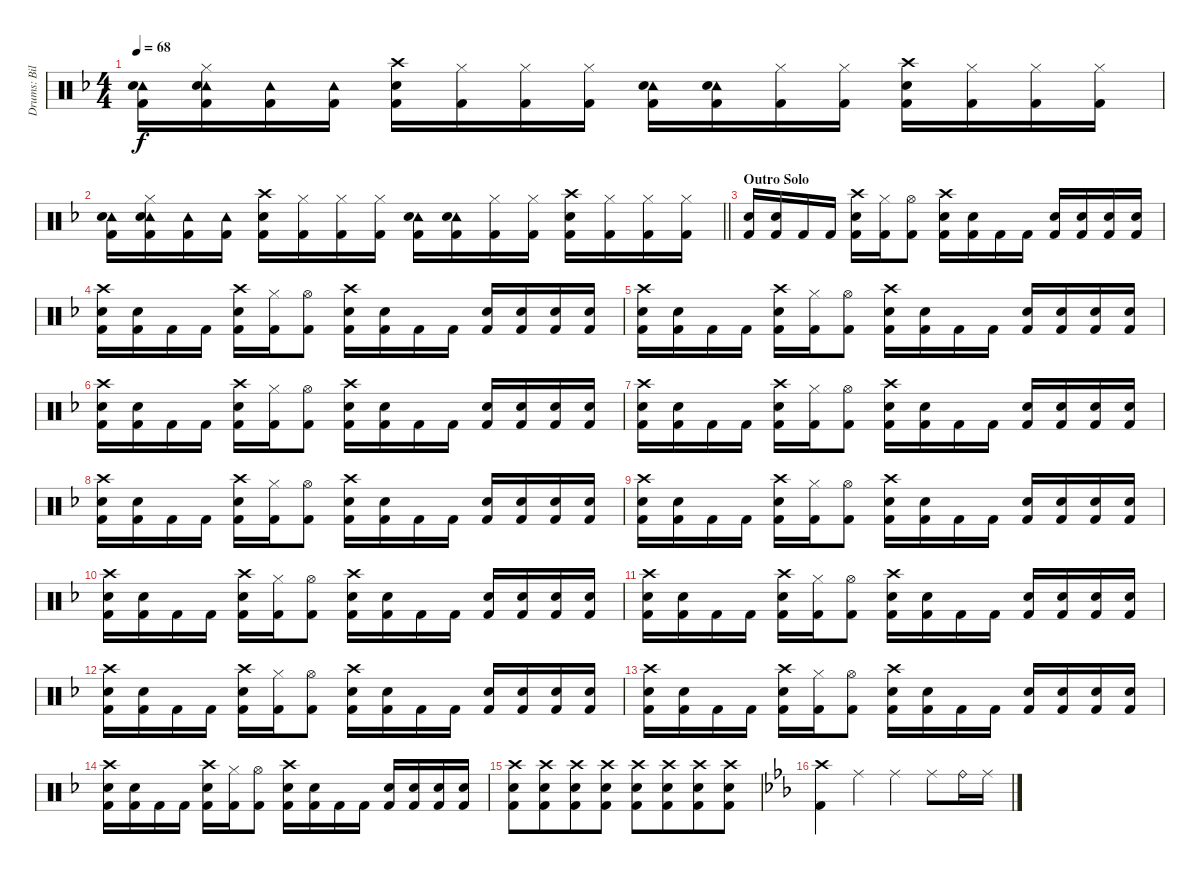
\track ("Drums: Bill" "Drums: Bil") {instrument percussion}
\staff {score}
\articulation defaults
\ts (4 4)
\tempo 68
\clef neutral
\ks dminor
("Tambourine (hit)" "Electric Snare (hit)" "Kick (hit) 2").16{dy f} ("Tambourine (hit)" "Hi-Hat (closed)" "Electric Snare (hit)" "Kick (hit) 2").16 ("Tambourine (hit)" "Kick (hit) 2").16 ("Tambourine (hit)" "Kick (hit) 2").16 ("Crash high (hit)" "Electric Snare (hit)" "Kick (hit) 2").16 ("Hi-Hat (closed)" "Kick (hit) 2").16 ("Hi-Hat (closed)" "Kick (hit) 2").16 ("Hi-Hat (closed)" "Kick (hit) 2").16 ("Tambourine (hit)" "Electric Snare (hit)" "Kick (hit) 2").16 ("Tambourine (hit)" "Electric Snare (hit)" "Kick (hit) 2").16 ("Hi-Hat (closed)" "Kick (hit) 2").16 ("Hi-Hat (closed)" "Kick (hit) 2").16 ("Crash high (hit)" "Electric Snare (hit)" "Kick (hit) 2").16 ("Hi-Hat (closed)" "Kick (hit) 2").16 ("Hi-Hat (closed)" "Kick (hit) 2").16 ("Hi-Hat (closed)" "Kick (hit) 2").16 |
\barLineRight lightlight
("Tambourine (hit)" "Electric Snare (hit)" "Kick (hit) 2").16 ("Tambourine (hit)" "Hi-Hat (closed)" "Electric Snare (hit)" "Kick (hit) 2").16 ("Tambourine (hit)" "Kick (hit) 2").16 ("Tambourine (hit)" "Kick (hit) 2").16 ("Crash high (hit)" "Electric Snare (hit)" "Kick (hit) 2").16 ("Hi-Hat (closed)" "Kick (hit) 2").16 ("Hi-Hat (closed)" "Kick (hit) 2").16 ("Hi-Hat (closed)" "Kick (hit) 2").16 ("Tambourine (hit)" "Electric Snare (hit)" "Kick (hit) 2").16 ("Tambourine (hit)" "Electric Snare (hit)" "Kick (hit) 2").16 ("Hi-Hat (closed)" "Kick (hit) 2").16 ("Hi-Hat (closed)" "Kick (hit) 2").16 ("Crash high (hit)" "Electric Snare (hit)" "Kick (hit) 2").16 ("Hi-Hat (closed)" "Kick (hit) 2").16 ("Hi-Hat (closed)" "Kick (hit) 2").16 ("Hi-Hat (closed)" "Kick (hit) 2").16 |
\section ("" "Outro Solo")
("Electric Snare (hit)" "Kick (hit) 2").16 ("Electric Snare (hit)" "Kick (hit) 2").16 "Kick (hit) 2".16 "Kick (hit) 2".16 ("Crash high (hit)" "Snare (hit) 2" "Kick (hit) 2").16 ("Hi-Hat (closed)" "Kick (hit) 2").16 ("Hi-Hat (open)" "Kick (hit) 2").8 ("Crash high (hit)" "Electric Snare (hit)" "Kick (hit) 2").16 ("Electric Snare (hit)" "Kick (hit) 2").16 "Kick (hit) 2".16 "Kick (hit) 2".16 ("Electric Snare (hit)" "Kick (hit) 2").16 ("Electric Snare (hit)" "Kick (hit) 2").16 ("Electric Snare (hit)" "Kick (hit) 2").16 ("Electric Snare (hit)" "Kick (hit) 2").16 |
("Crash high (hit)" "Electric Snare (hit)" "Kick (hit) 2").16 ("Electric Snare (hit)" "Kick (hit) 2").16 "Kick (hit) 2".16 "Kick (hit) 2".16 ("Crash high (hit)" "Snare (hit) 2" "Kick (hit) 2").16 ("Hi-Hat (closed)" "Kick (hit) 2").16 ("Hi-Hat (open)" "Kick (hit) 2").8 ("Crash high (hit)" "Electric Snare (hit)" "Kick (hit) 2").16 ("Electric Snare (hit)" "Kick (hit) 2").16 "Kick (hit) 2".16 "Kick (hit) 2".16 ("Electric Snare (hit)" "Kick (hit) 2").16 ("Electric Snare (hit)" "Kick (hit) 2").16 ("Electric Snare (hit)" "Kick (hit) 2").16 ("Electric Snare (hit)" "Kick (hit) 2").16 |
("Crash high (hit)" "Electric Snare (hit)" "Kick (hit) 2").16 ("Electric Snare (hit)" "Kick (hit) 2").16 "Kick (hit) 2".16 "Kick (hit) 2".16 ("Crash high (hit)" "Snare (hit) 2" "Kick (hit) 2").16 ("Hi-Hat (closed)" "Kick (hit) 2").16 ("Hi-Hat (open)" "Kick (hit) 2").8 ("Crash high (hit)" "Electric Snare (hit)" "Kick (hit) 2").16 ("Electric Snare (hit)" "Kick (hit) 2").16 "Kick (hit) 2".16 "Kick (hit) 2".16 ("Electric Snare (hit)" "Kick (hit) 2").16 ("Electric Snare (hit)" "Kick (hit) 2").16 ("Electric Snare (hit)" "Kick (hit) 2").16 ("Electric Snare (hit)" "Kick (hit) 2").16 |
("Crash high (hit)" "Electric Snare (hit)" "Kick (hit) 2").16 ("Electric Snare (hit)" "Kick (hit) 2").16 "Kick (hit) 2".16 "Kick (hit) 2".16 ("Crash high (hit)" "Snare (hit) 2" "Kick (hit) 2").16 ("Hi-Hat (closed)" "Kick (hit) 2").16 ("Hi-Hat (open)" "Kick (hit) 2").8 ("Crash high (hit)" "Electric Snare (hit)" "Kick (hit) 2").16 ("Electric Snare (hit)" "Kick (hit) 2").16 "Kick (hit) 2".16 "Kick (hit) 2".16 ("Electric Snare (hit)" "Kick (hit) 2").16 ("Electric Snare (hit)" "Kick (hit) 2").16 ("Electric Snare (hit)" "Kick (hit) 2").16 ("Electric Snare (hit)" "Kick (hit) 2").16 |
("Crash high (hit)" "Electric Snare (hit)" "Kick (hit) 2").16 ("Electric Snare (hit)" "Kick (hit) 2").16 "Kick (hit) 2".16 "Kick (hit) 2".16 ("Crash high (hit)" "Snare (hit) 2" "Kick (hit) 2").16 ("Hi-Hat (closed)" "Kick (hit) 2").16 ("Hi-Hat (open)" "Kick (hit) 2").8 ("Crash high (hit)" "Electric Snare (hit)" "Kick (hit) 2").16 ("Electric Snare (hit)" "Kick (hit) 2").16 "Kick (hit) 2".16 "Kick (hit) 2".16 ("Electric Snare (hit)" "Kick (hit) 2").16 ("Electric Snare (hit)" "Kick (hit) 2").16 ("Electric Snare (hit)" "Kick (hit) 2").16 ("Electric Snare (hit)" "Kick (hit) 2").16 |
("Crash high (hit)" "Electric Snare (hit)" "Kick (hit) 2").16 ("Electric Snare (hit)" "Kick (hit) 2").16 "Kick (hit) 2".16 "Kick (hit) 2".16 ("Crash high (hit)" "Snare (hit) 2" "Kick (hit) 2").16 ("Hi-Hat (closed)" "Kick (hit) 2").16 ("Hi-Hat (open)" "Kick (hit) 2").8 ("Crash high (hit)" "Electric Snare (hit)" "Kick (hit) 2").16 ("Electric Snare (hit)" "Kick (hit) 2").16 "Kick (hit) 2".16 "Kick (hit) 2".16 ("Electric Snare (hit)" "Kick (hit) 2").16 ("Electric Snare (hit)" "Kick (hit) 2").16 ("Electric Snare (hit)" "Kick (hit) 2").16 ("Electric Snare (hit)" "Kick (hit) 2").16 |
("Crash high (hit)" "Electric Snare (hit)" "Kick (hit) 2").16 ("Electric Snare (hit)" "Kick (hit) 2").16 "Kick (hit) 2".16 "Kick (hit) 2".16 ("Crash high (hit)" "Snare (hit) 2" "Kick (hit) 2").16 ("Hi-Hat (closed)" "Kick (hit) 2").16 ("Hi-Hat (open)" "Kick (hit) 2").8 ("Crash high (hit)" "Electric Snare (hit)" "Kick (hit) 2").16 ("Electric Snare (hit)" "Kick (hit) 2").16 "Kick (hit) 2".16 "Kick (hit) 2".16 ("Electric Snare (hit)" "Kick (hit) 2").16 ("Electric Snare (hit)" "Kick (hit) 2").16 ("Electric Snare (hit)" "Kick (hit) 2").16 ("Electric Snare (hit)" "Kick (hit) 2").16 |
("Crash high (hit)" "Electric Snare (hit)" "Kick (hit) 2").16 ("Electric Snare (hit)" "Kick (hit) 2").16 "Kick (hit) 2".16 "Kick (hit) 2".16 ("Crash high (hit)" "Snare (hit) 2" "Kick (hit) 2").16 ("Hi-Hat (closed)" "Kick (hit) 2").16 ("Hi-Hat (open)" "Kick (hit) 2").8 ("Crash high (hit)" "Electric Snare (hit)" "Kick (hit) 2").16 ("Electric Snare (hit)" "Kick (hit) 2").16 "Kick (hit) 2".16 "Kick (hit) 2".16 ("Electric Snare (hit)" "Kick (hit) 2").16 ("Electric Snare (hit)" "Kick (hit) 2").16 ("Electric Snare (hit)" "Kick (hit) 2").16 ("Electric Snare (hit)" "Kick (hit) 2").16 |
("Crash high (hit)" "Electric Snare (hit)" "Kick (hit) 2").16 ("Electric Snare (hit)" "Kick (hit) 2").16 "Kick (hit) 2".16 "Kick (hit) 2".16 ("Crash high (hit)" "Snare (hit) 2" "Kick (hit) 2").16 ("Hi-Hat (closed)" "Kick (hit) 2").16 ("Hi-Hat (open)" "Kick (hit) 2").8 ("Crash high (hit)" "Electric Snare (hit)" "Kick (hit) 2").16 ("Electric Snare (hit)" "Kick (hit) 2").16 "Kick (hit) 2".16 "Kick (hit) 2".16 ("Electric Snare (hit)" "Kick (hit) 2").16 ("Electric Snare (hit)" "Kick (hit) 2").16 ("Electric Snare (hit)" "Kick (hit) 2").16 ("Electric Snare (hit)" "Kick (hit) 2").16 |
("Crash high (hit)" "Electric Snare (hit)" "Kick (hit) 2").16 ("Electric Snare (hit)" "Kick (hit) 2").16 "Kick (hit) 2".16 "Kick (hit) 2".16 ("Crash high (hit)" "Snare (hit) 2" "Kick (hit) 2").16 ("Hi-Hat (closed)" "Kick (hit) 2").16 ("Hi-Hat (open)" "Kick (hit) 2").8 ("Crash high (hit)" "Electric Snare (hit)" "Kick (hit) 2").16 ("Electric Snare (hit)" "Kick (hit) 2").16 "Kick (hit) 2".16 "Kick (hit) 2".16 ("Electric Snare (hit)" "Kick (hit) 2").16 ("Electric Snare (hit)" "Kick (hit) 2").16 ("Electric Snare (hit)" "Kick (hit) 2").16 ("Electric Snare (hit)" "Kick (hit) 2").16 |
("Crash high (hit)" "Electric Snare (hit)" "Kick (hit) 2").16 ("Electric Snare (hit)" "Kick (hit) 2").16 "Kick (hit) 2".16 "Kick (hit) 2".16 ("Crash high (hit)" "Snare (hit) 2" "Kick (hit) 2").16 ("Hi-Hat (closed)" "Kick (hit) 2").16 ("Hi-Hat (open)" "Kick (hit) 2").8 ("Crash high (hit)" "Electric Snare (hit)" "Kick (hit) 2").16 ("Electric Snare (hit)" "Kick (hit) 2").16 "Kick (hit) 2".16 "Kick (hit) 2".16 ("Electric Snare (hit)" "Kick (hit) 2").16 ("Electric Snare (hit)" "Kick (hit) 2").16 ("Electric Snare (hit)" "Kick (hit) 2").16 ("Electric Snare (hit)" "Kick (hit) 2").16 |
("Crash high (hit)" "Electric Snare (hit)" "Kick (hit) 2").16 ("Electric Snare (hit)" "Kick (hit) 2").16 "Kick (hit) 2".16 "Kick (hit) 2".16 ("Crash high (hit)" "Snare (hit) 2" "Kick (hit) 2").16 ("Hi-Hat (closed)" "Kick (hit) 2").16 ("Hi-Hat (open)" "Kick (hit) 2").8 ("Crash high (hit)" "Electric Snare (hit)" "Kick (hit) 2").16 ("Electric Snare (hit)" "Kick (hit) 2").16 "Kick (hit) 2".16 "Kick (hit) 2".16 ("Electric Snare (hit)" "Kick (hit) 2").16 ("Electric Snare (hit)" "Kick (hit) 2").16 ("Electric Snare (hit)" "Kick (hit) 2").16 ("Electric Snare (hit)" "Kick (hit) 2").16 |
("Crash high (hit)" "Electric Snare (hit)" "Kick (hit) 2").8 ("Crash high (hit)" "Electric Snare (hit)" "Kick (hit) 2").8{beam merge} ("Crash high (hit)" "Electric Snare (hit)" "Kick (hit) 2").8 ("Crash high (hit)" "Electric Snare (hit)" "Kick (hit) 2").8 ("Crash high (hit)" "Electric Snare (hit)" "Kick (hit) 2").8 ("Crash high (hit)" "Electric Snare (hit)" "Kick (hit) 2").8{beam merge} ("Crash high (hit)" "Electric Snare (hit)" "Kick (hit) 2").8 ("Crash high (hit)" "Electric Snare (hit)" "Kick (hit) 2").8 |
\ks eb
("Crash high (hit)" "Kick (hit) 2").4 "Ride (middle)".4 "Ride (middle)".4 "Ride (middle)".8 "Ride (bell)".16 "Ride (middle)".16
